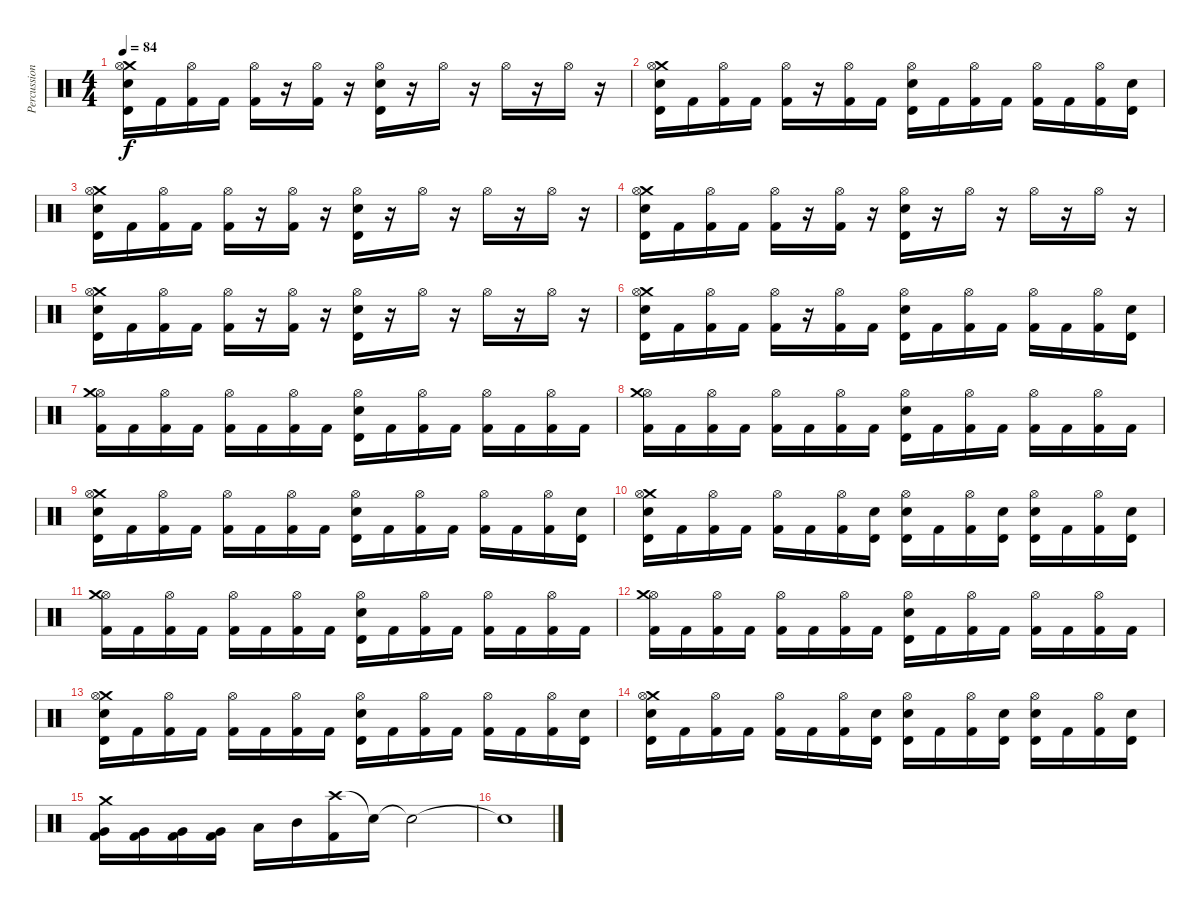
\track ("Percussion" "Percussion") {instrument percussion}
\staff {score}
\articulation defaults
\ts (4 4)
\tempo 84
\clef neutral
\ks c
("Crash medium (hit)" "Hi-Hat (open)" "Timbale high (hit)" "Electric Snare (hit)").16{dy f} "Kick (hit) 2".16 ("Hi-Hat (open)" "Kick (hit) 2").16 "Kick (hit) 2".16 ("Hi-Hat (open)" "Kick (hit) 2").16 r.16 ("Hi-Hat (open)" "Kick (hit) 2").16 r.16 ("Hi-Hat (open)" "Timbale high (hit)" "Electric Snare (hit)").16 r.16 "Hi-Hat (open)".16 r.16 "Hi-Hat (open)".16 r.16 "Hi-Hat (open)".16 r.16 |
("Crash medium (hit)" "Hi-Hat (open)" "Timbale high (hit)" "Electric Snare (hit)").16 "Kick (hit) 2".16 ("Hi-Hat (open)" "Kick (hit) 2").16 "Kick (hit) 2".16 ("Hi-Hat (open)" "Kick (hit) 2").16 r.16 ("Hi-Hat (open)" "Kick (hit) 2").16 "Kick (hit) 2".16 ("Hi-Hat (open)" "Timbale high (hit)" "Electric Snare (hit)").16 "Kick (hit) 2".16 ("Hi-Hat (open)" "Kick (hit) 2").16 "Kick (hit) 2".16 ("Hi-Hat (open)" "Kick (hit) 2").16 "Kick (hit) 2".16 ("Hi-Hat (open)" "Kick (hit) 2").16 ("Timbale high (hit)" "Electric Snare (hit)").16 |
("Crash medium (hit)" "Hi-Hat (open)" "Timbale high (hit)" "Electric Snare (hit)").16 "Kick (hit) 2".16 ("Hi-Hat (open)" "Kick (hit) 2").16 "Kick (hit) 2".16 ("Hi-Hat (open)" "Kick (hit) 2").16 r.16 ("Hi-Hat (open)" "Kick (hit) 2").16 r.16 ("Hi-Hat (open)" "Timbale high (hit)" "Electric Snare (hit)").16 r.16 "Hi-Hat (open)".16 r.16 "Hi-Hat (open)".16 r.16 "Hi-Hat (open)".16 r.16 |
("Crash medium (hit)" "Hi-Hat (open)" "Timbale high (hit)" "Electric Snare (hit)").16 "Kick (hit) 2".16 ("Hi-Hat (open)" "Kick (hit) 2").16 "Kick (hit) 2".16 ("Hi-Hat (open)" "Kick (hit) 2").16 r.16 ("Hi-Hat (open)" "Kick (hit) 2").16 r.16 ("Hi-Hat (open)" "Timbale high (hit)" "Electric Snare (hit)").16 r.16 "Hi-Hat (open)".16 r.16 "Hi-Hat (open)".16 r.16 "Hi-Hat (open)".16 r.16 |
("Crash medium (hit)" "Hi-Hat (open)" "Timbale high (hit)" "Electric Snare (hit)").16 "Kick (hit) 2".16 ("Hi-Hat (open)" "Kick (hit) 2").16 "Kick (hit) 2".16 ("Hi-Hat (open)" "Kick (hit) 2").16 r.16 ("Hi-Hat (open)" "Kick (hit) 2").16 r.16 ("Hi-Hat (open)" "Timbale high (hit)" "Electric Snare (hit)").16 r.16 "Hi-Hat (open)".16 r.16 "Hi-Hat (open)".16 r.16 "Hi-Hat (open)".16 r.16 |
("Crash medium (hit)" "Hi-Hat (open)" "Timbale high (hit)" "Electric Snare (hit)").16 "Kick (hit) 2".16 ("Hi-Hat (open)" "Kick (hit) 2").16 "Kick (hit) 2".16 ("Hi-Hat (open)" "Kick (hit) 2").16 r.16 ("Hi-Hat (open)" "Kick (hit) 2").16 "Kick (hit) 2".16 ("Hi-Hat (open)" "Timbale high (hit)" "Electric Snare (hit)").16 "Kick (hit) 2".16 ("Hi-Hat (open)" "Kick (hit) 2").16 "Kick (hit) 2".16 ("Hi-Hat (open)" "Kick (hit) 2").16 "Kick (hit) 2".16 ("Hi-Hat (open)" "Kick (hit) 2").16 ("Timbale high (hit)" "Electric Snare (hit)").16 |
("Hi-Hat (open)" "Crash medium (hit)" "Kick (hit) 2").16 "Kick (hit) 2".16 ("Hi-Hat (open)" "Kick (hit) 2").16 "Kick (hit) 2".16 ("Hi-Hat (open)" "Kick (hit) 2").16 "Kick (hit) 2".16 ("Hi-Hat (open)" "Kick (hit) 2").16 "Kick (hit) 2".16 ("Hi-Hat (open)" "Timbale high (hit)" "Electric Snare (hit)").16 "Kick (hit) 2".16 ("Hi-Hat (open)" "Kick (hit) 2").16 "Kick (hit) 2".16 ("Hi-Hat (open)" "Kick (hit) 2").16 "Kick (hit) 2".16 ("Hi-Hat (open)" "Kick (hit) 2").16 "Kick (hit) 2".16 |
("Hi-Hat (open)" "Crash medium (hit)" "Kick (hit) 2").16 "Kick (hit) 2".16 ("Hi-Hat (open)" "Kick (hit) 2").16 "Kick (hit) 2".16 ("Hi-Hat (open)" "Kick (hit) 2").16 "Kick (hit) 2".16 ("Hi-Hat (open)" "Kick (hit) 2").16 "Kick (hit) 2".16 ("Hi-Hat (open)" "Timbale high (hit)" "Electric Snare (hit)").16 "Kick (hit) 2".16 ("Hi-Hat (open)" "Kick (hit) 2").16 "Kick (hit) 2".16 ("Hi-Hat (open)" "Kick (hit) 2").16 "Kick (hit) 2".16 ("Hi-Hat (open)" "Kick (hit) 2").16 "Kick (hit) 2".16 |
("Crash medium (hit)" "Hi-Hat (open)" "Timbale high (hit)" "Electric Snare (hit)").16 "Kick (hit) 2".16 ("Hi-Hat (open)" "Kick (hit) 2").16 "Kick (hit) 2".16 ("Hi-Hat (open)" "Kick (hit) 2").16 "Kick (hit) 2".16 ("Hi-Hat (open)" "Kick (hit) 2").16 "Kick (hit) 2".16 ("Hi-Hat (open)" "Timbale high (hit)" "Electric Snare (hit)").16 "Kick (hit) 2".16 ("Hi-Hat (open)" "Kick (hit) 2").16 "Kick (hit) 2".16 ("Hi-Hat (open)" "Kick (hit) 2").16 "Kick (hit) 2".16 ("Hi-Hat (open)" "Kick (hit) 2").16 ("Timbale high (hit)" "Electric Snare (hit)").16 |
("Crash medium (hit)" "Hi-Hat (open)" "Timbale high (hit)" "Electric Snare (hit)").16 "Kick (hit) 2".16 ("Hi-Hat (open)" "Kick (hit) 2").16 "Kick (hit) 2".16 ("Hi-Hat (open)" "Kick (hit) 2").16 "Kick (hit) 2".16 ("Hi-Hat (open)" "Kick (hit) 2").16 ("Timbale high (hit)" "Electric Snare (hit)").16 ("Hi-Hat (open)" "Timbale high (hit)" "Electric Snare (hit)").16 "Kick (hit) 2".16 ("Hi-Hat (open)" "Kick (hit) 2").16 ("Timbale high (hit)" "Electric Snare (hit)").16 ("Hi-Hat (open)" "Timbale high (hit)" "Electric Snare (hit)").16 "Kick (hit) 2".16 ("Hi-Hat (open)" "Kick (hit) 2").16 ("Timbale high (hit)" "Electric Snare (hit)").16 |
("Hi-Hat (open)" "Crash medium (hit)" "Kick (hit) 2").16 "Kick (hit) 2".16 ("Hi-Hat (open)" "Kick (hit) 2").16 "Kick (hit) 2".16 ("Hi-Hat (open)" "Kick (hit) 2").16 "Kick (hit) 2".16 ("Hi-Hat (open)" "Kick (hit) 2").16 "Kick (hit) 2".16 ("Hi-Hat (open)" "Timbale high (hit)" "Electric Snare (hit)").16 "Kick (hit) 2".16 ("Hi-Hat (open)" "Kick (hit) 2").16 "Kick (hit) 2".16 ("Hi-Hat (open)" "Kick (hit) 2").16 "Kick (hit) 2".16 ("Hi-Hat (open)" "Kick (hit) 2").16 "Kick (hit) 2".16 |
("Hi-Hat (open)" "Crash medium (hit)" "Kick (hit) 2").16 "Kick (hit) 2".16 ("Hi-Hat (open)" "Kick (hit) 2").16 "Kick (hit) 2".16 ("Hi-Hat (open)" "Kick (hit) 2").16 "Kick (hit) 2".16 ("Hi-Hat (open)" "Kick (hit) 2").16 "Kick (hit) 2".16 ("Hi-Hat (open)" "Timbale high (hit)" "Electric Snare (hit)").16 "Kick (hit) 2".16 ("Hi-Hat (open)" "Kick (hit) 2").16 "Kick (hit) 2".16 ("Hi-Hat (open)" "Kick (hit) 2").16 "Kick (hit) 2".16 ("Hi-Hat (open)" "Kick (hit) 2").16 "Kick (hit) 2".16 |
("Crash medium (hit)" "Hi-Hat (open)" "Timbale high (hit)" "Electric Snare (hit)").16 "Kick (hit) 2".16 ("Hi-Hat (open)" "Kick (hit) 2").16 "Kick (hit) 2".16 ("Hi-Hat (open)" "Kick (hit) 2").16 "Kick (hit) 2".16 ("Hi-Hat (open)" "Kick (hit) 2").16 "Kick (hit) 2".16 ("Hi-Hat (open)" "Timbale high (hit)" "Electric Snare (hit)").16 "Kick (hit) 2".16 ("Hi-Hat (open)" "Kick (hit) 2").16 "Kick (hit) 2".16 ("Hi-Hat (open)" "Kick (hit) 2").16 "Kick (hit) 2".16 ("Hi-Hat (open)" "Kick (hit) 2").16 ("Timbale high (hit)" "Electric Snare (hit)").16 |
("Crash medium (hit)" "Hi-Hat (open)" "Timbale high (hit)" "Electric Snare (hit)").16 "Kick (hit) 2".16 ("Hi-Hat (open)" "Kick (hit) 2").16 "Kick (hit) 2".16 ("Hi-Hat (open)" "Kick (hit) 2").16 "Kick (hit) 2".16 ("Hi-Hat (open)" "Kick (hit) 2").16 ("Timbale high (hit)" "Electric Snare (hit)").16 ("Hi-Hat (open)" "Timbale high (hit)" "Electric Snare (hit)").16 "Kick (hit) 2".16 ("Hi-Hat (open)" "Kick (hit) 2").16 ("Timbale high (hit)" "Electric Snare (hit)").16 ("Hi-Hat (open)" "Timbale high (hit)" "Electric Snare (hit)").16 "Kick (hit) 2".16 ("Hi-Hat (open)" "Kick (hit) 2").16 ("Timbale high (hit)" "Electric Snare (hit)").16 |
("Crash medium (hit)" "Very Low Tom (hit)" "Kick (hit) 2").16 ("Very Low Tom (hit)" "Kick (hit) 2").16 ("Very Low Tom (hit)" "Kick (hit) 2").16 ("Very Low Tom (hit)" "Kick (hit) 2").16 "Low Tom (hit)".16 "Mid Tom (hit)".16 ("Crash high (hit)" "Kick (hit) 2").16 "Snare (hit)"{t}.16 "Snare (hit)"{t}.2 |
"Snare (hit)"{t}.1
